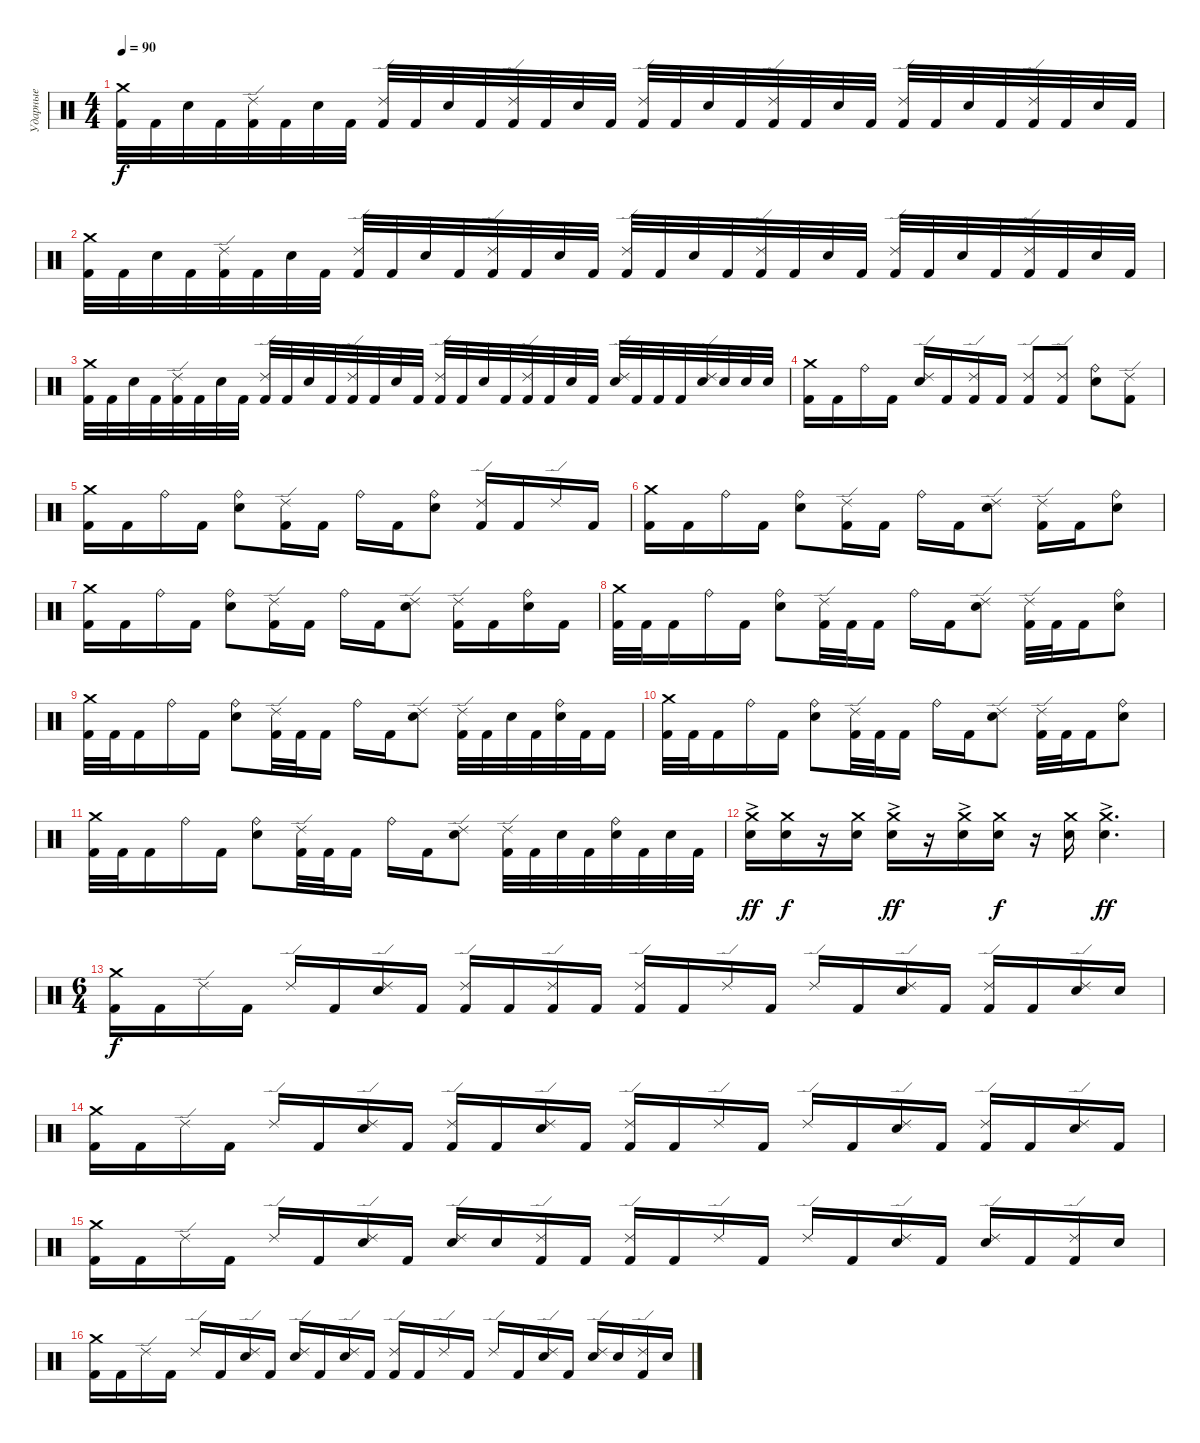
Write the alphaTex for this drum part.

\track ("Ударные" "Ударные") {instrument percussion}
\staff {score}
\articulation defaults
\ts (4 4)
\tempo 90
\clef neutral
\ks c
("Crash medium (hit)" "Kick (hit) 2").32{dy f} "Kick (hit) 2".32 "Electric Snare (hit)".32 "Kick (hit) 2".32 ("Ride (edge) 2" "Kick (hit) 2").32 "Kick (hit) 2".32 "Electric Snare (hit)".32 "Kick (hit) 2".32 ("Ride (edge) 2" "Kick (hit) 2").32 "Kick (hit) 2".32 "Electric Snare (hit)".32 "Kick (hit) 2".32 ("Ride (edge) 2" "Kick (hit) 2").32 "Kick (hit) 2".32 "Electric Snare (hit)".32 "Kick (hit) 2".32 ("Ride (edge) 2" "Kick (hit) 2").32 "Kick (hit) 2".32 "Electric Snare (hit)".32 "Kick (hit) 2".32 ("Ride (edge) 2" "Kick (hit) 2").32 "Kick (hit) 2".32 "Electric Snare (hit)".32 "Kick (hit) 2".32 ("Ride (edge) 2" "Kick (hit) 2").32 "Kick (hit) 2".32 "Electric Snare (hit)".32 "Kick (hit) 2".32 ("Ride (edge) 2" "Kick (hit) 2").32 "Kick (hit) 2".32 "Electric Snare (hit)".32 "Kick (hit) 2".32 |
("Crash medium (hit)" "Kick (hit) 2").32 "Kick (hit) 2".32 "Electric Snare (hit)".32 "Kick (hit) 2".32 ("Ride (edge) 2" "Kick (hit) 2").32 "Kick (hit) 2".32 "Electric Snare (hit)".32 "Kick (hit) 2".32 ("Ride (edge) 2" "Kick (hit) 2").32 "Kick (hit) 2".32 "Electric Snare (hit)".32 "Kick (hit) 2".32 ("Ride (edge) 2" "Kick (hit) 2").32 "Kick (hit) 2".32 "Electric Snare (hit)".32 "Kick (hit) 2".32 ("Ride (edge) 2" "Kick (hit) 2").32 "Kick (hit) 2".32 "Electric Snare (hit)".32 "Kick (hit) 2".32 ("Ride (edge) 2" "Kick (hit) 2").32 "Kick (hit) 2".32 "Electric Snare (hit)".32 "Kick (hit) 2".32 ("Ride (edge) 2" "Kick (hit) 2").32 "Kick (hit) 2".32 "Electric Snare (hit)".32 "Kick (hit) 2".32 ("Ride (edge) 2" "Kick (hit) 2").32 "Kick (hit) 2".32 "Electric Snare (hit)".32 "Kick (hit) 2".32 |
("Crash medium (hit)" "Kick (hit) 2").32 "Kick (hit) 2".32 "Electric Snare (hit)".32 "Kick (hit) 2".32 ("Ride (edge) 2" "Kick (hit) 2").32 "Kick (hit) 2".32 "Electric Snare (hit)".32 "Kick (hit) 2".32 ("Ride (edge) 2" "Kick (hit) 2").32 "Kick (hit) 2".32 "Electric Snare (hit)".32 "Kick (hit) 2".32 ("Ride (edge) 2" "Kick (hit) 2").32 "Kick (hit) 2".32 "Electric Snare (hit)".32 "Kick (hit) 2".32 ("Ride (edge) 2" "Kick (hit) 2").32 "Kick (hit) 2".32 "Electric Snare (hit)".32 "Kick (hit) 2".32 ("Ride (edge) 2" "Kick (hit) 2").32 "Kick (hit) 2".32 "Electric Snare (hit)".32 "Kick (hit) 2".32 ("Electric Snare (hit)" "Ride (edge) 2").32 "Kick (hit) 2".32 "Kick (hit) 2".32 "Kick (hit) 2".32 ("Electric Snare (hit)" "Ride (edge) 2").32 "Electric Snare (hit)".32 "Electric Snare (hit)".32 "Electric Snare (hit)".32 |
("Crash medium (hit)" "Kick (hit) 2").16 "Kick (hit) 2".16 "Ride (bell)".16 "Kick (hit) 2".16 ("Ride (edge) 2" "Electric Snare (hit)").16 "Kick (hit) 2".16 ("Ride (edge) 2" "Kick (hit) 2").16 "Kick (hit) 2".16 ("Ride (edge) 2" "Kick (hit) 2").8 ("Ride (edge) 2" "Kick (hit) 2").8 ("Ride (bell)" "Electric Snare (hit)").8 ("Ride (edge) 2" "Kick (hit) 2").8 |
("Crash medium (hit)" "Kick (hit) 2").16 "Kick (hit) 2".16 "Ride (bell)".16 "Kick (hit) 2".16 ("Ride (bell)" "Electric Snare (hit)").8 ("Ride (edge) 2" "Kick (hit) 2").16 "Kick (hit) 2".16 "Ride (bell)".16 "Kick (hit) 2".16 ("Ride (bell)" "Electric Snare (hit)").8 ("Ride (edge) 2" "Kick (hit) 2").16 "Kick (hit) 2".16 "Ride (edge) 2".16 "Kick (hit) 2".16 |
("Crash medium (hit)" "Kick (hit) 2").16 "Kick (hit) 2".16 "Ride (bell)".16 "Kick (hit) 2".16 ("Ride (bell)" "Electric Snare (hit)").8 ("Ride (edge) 2" "Kick (hit) 2").16 "Kick (hit) 2".16 "Ride (bell)".16 "Kick (hit) 2".16 ("Ride (edge) 2" "Electric Snare (hit)").8 ("Ride (edge) 2" "Kick (hit) 2").16 "Kick (hit) 2".16 ("Ride (bell)" "Electric Snare (hit)").8 |
("Crash medium (hit)" "Kick (hit) 2").16 "Kick (hit) 2".16 "Ride (bell)".16 "Kick (hit) 2".16 ("Ride (bell)" "Electric Snare (hit)").8 ("Ride (edge) 2" "Kick (hit) 2").16 "Kick (hit) 2".16 "Ride (bell)".16 "Kick (hit) 2".16 ("Ride (edge) 2" "Electric Snare (hit)").8 ("Ride (edge) 2" "Kick (hit) 2").16 "Kick (hit) 2".16 ("Ride (bell)" "Electric Snare (hit)").16 "Kick (hit) 2".16 |
("Crash medium (hit)" "Kick (hit) 2").32 "Kick (hit) 2".32 "Kick (hit) 2".16 "Ride (bell)".16 "Kick (hit) 2".16 ("Ride (bell)" "Electric Snare (hit)").8 ("Ride (edge) 2" "Kick (hit) 2").32 "Kick (hit) 2".32 "Kick (hit) 2".16 "Ride (bell)".16 "Kick (hit) 2".16 ("Ride (edge) 2" "Electric Snare (hit)").8 ("Ride (edge) 2" "Kick (hit) 2").32 "Kick (hit) 2".32 "Kick (hit) 2".16 ("Ride (bell)" "Electric Snare (hit)").8 |
("Crash medium (hit)" "Kick (hit) 2").32 "Kick (hit) 2".32 "Kick (hit) 2".16 "Ride (bell)".16 "Kick (hit) 2".16 ("Ride (bell)" "Electric Snare (hit)").8 ("Ride (edge) 2" "Kick (hit) 2").32 "Kick (hit) 2".32 "Kick (hit) 2".16 "Ride (bell)".16 "Kick (hit) 2".16 ("Ride (edge) 2" "Electric Snare (hit)").8 ("Ride (edge) 2" "Kick (hit) 2").32 "Kick (hit) 2".32 "Electric Snare (hit)".32 "Kick (hit) 2".32 ("Ride (bell)" "Electric Snare (hit)").32 "Kick (hit) 2".32 "Kick (hit) 2".16 |
("Crash medium (hit)" "Kick (hit) 2").32 "Kick (hit) 2".32 "Kick (hit) 2".16 "Ride (bell)".16 "Kick (hit) 2".16 ("Ride (bell)" "Electric Snare (hit)").8 ("Ride (edge) 2" "Kick (hit) 2").32 "Kick (hit) 2".32 "Kick (hit) 2".16 "Ride (bell)".16 "Kick (hit) 2".16 ("Ride (edge) 2" "Electric Snare (hit)").8 ("Ride (edge) 2" "Kick (hit) 2").32 "Kick (hit) 2".32 "Kick (hit) 2".16 ("Ride (bell)" "Electric Snare (hit)").8 |
("Crash medium (hit)" "Kick (hit) 2").32 "Kick (hit) 2".32 "Kick (hit) 2".16 "Ride (bell)".16 "Kick (hit) 2".16 ("Ride (bell)" "Electric Snare (hit)").8 ("Ride (edge) 2" "Kick (hit) 2").32 "Kick (hit) 2".32 "Kick (hit) 2".16 "Ride (bell)".16 "Kick (hit) 2".16 ("Ride (edge) 2" "Electric Snare (hit)").8 ("Ride (edge) 2" "Kick (hit) 2").32 "Kick (hit) 2".32 "Electric Snare (hit)".32 "Kick (hit) 2".32 ("Ride (bell)" "Electric Snare (hit)").32 "Kick (hit) 2".32 "Electric Snare (hit)".32 "Kick (hit) 2".32 |
("Crash medium (hit)" "Electric Snare (hit)"{ac}).16{dy ff} ("Crash medium (hit)" "Electric Snare (hit)").16{dy f} r.16 ("Crash medium (hit)" "Electric Snare (hit)").16 ("Crash medium (hit)" "Electric Snare (hit)"{ac}).16{dy ff} r.16 ("Crash medium (hit)" "Electric Snare (hit)"{ac}).16 ("Crash medium (hit)" "Electric Snare (hit)").16{dy f} r.16 ("Crash medium (hit)" "Electric Snare (hit)").16 ("Crash medium (hit)" "Electric Snare (hit)"{ac}).4{d dy ff} |
\ts (6 4)
("Crash medium (hit)" "Kick (hit) 2").16{dy f} "Kick (hit) 2".16 "Ride (edge) 2".16 "Kick (hit) 2".16 "Ride (edge) 2".16 "Kick (hit) 2".16 ("Ride (edge) 2" "Electric Snare (hit)").16 "Kick (hit) 2".16 ("Ride (edge) 2" "Kick (hit) 2").16 "Kick (hit) 2".16 ("Ride (edge) 2" "Kick (hit) 2").16 "Kick (hit) 2".16 ("Ride (edge) 2" "Kick (hit) 2").16 "Kick (hit) 2".16 "Ride (edge) 2".16 "Kick (hit) 2".16 "Ride (edge) 2".16 "Kick (hit) 2".16 ("Ride (edge) 2" "Electric Snare (hit)").16 "Kick (hit) 2".16 ("Ride (edge) 2" "Kick (hit) 2").16 "Kick (hit) 2".16 ("Ride (edge) 2" "Electric Snare (hit)").16 "Electric Snare (hit)".16 |
("Crash medium (hit)" "Kick (hit) 2").16 "Kick (hit) 2".16 "Ride (edge) 2".16 "Kick (hit) 2".16 "Ride (edge) 2".16 "Kick (hit) 2".16 ("Ride (edge) 2" "Electric Snare (hit)").16 "Kick (hit) 2".16 ("Ride (edge) 2" "Kick (hit) 2").16 "Kick (hit) 2".16 ("Ride (edge) 2" "Electric Snare (hit)").16 "Kick (hit) 2".16 ("Ride (edge) 2" "Kick (hit) 2").16 "Kick (hit) 2".16 "Ride (edge) 2".16 "Kick (hit) 2".16 "Ride (edge) 2".16 "Kick (hit) 2".16 ("Ride (edge) 2" "Electric Snare (hit)").16 "Kick (hit) 2".16 ("Ride (edge) 2" "Kick (hit) 2").16 "Kick (hit) 2".16 ("Ride (edge) 2" "Electric Snare (hit)").16 "Kick (hit) 2".16 |
("Crash medium (hit)" "Kick (hit) 2").16 "Kick (hit) 2".16 "Ride (edge) 2".16 "Kick (hit) 2".16 "Ride (edge) 2".16 "Kick (hit) 2".16 ("Ride (edge) 2" "Electric Snare (hit)").16 "Kick (hit) 2".16 ("Ride (edge) 2" "Electric Snare (hit)").16 "Electric Snare (hit)".16 ("Ride (edge) 2" "Kick (hit) 2").16 "Kick (hit) 2".16 ("Ride (edge) 2" "Kick (hit) 2").16 "Kick (hit) 2".16 "Ride (edge) 2".16 "Kick (hit) 2".16 "Ride (edge) 2".16 "Kick (hit) 2".16 ("Ride (edge) 2" "Electric Snare (hit)").16 "Kick (hit) 2".16 ("Ride (edge) 2" "Electric Snare (hit)").16 "Kick (hit) 2".16 ("Ride (edge) 2" "Kick (hit) 2").16 "Electric Snare (hit)".16 |
("Crash medium (hit)" "Kick (hit) 2").16 "Kick (hit) 2".16 "Ride (edge) 2".16 "Kick (hit) 2".16 "Ride (edge) 2".16 "Kick (hit) 2".16 ("Ride (edge) 2" "Electric Snare (hit)").16 "Kick (hit) 2".16 ("Ride (edge) 2" "Electric Snare (hit)").16 "Kick (hit) 2".16 ("Ride (edge) 2" "Electric Snare (hit)").16 "Kick (hit) 2".16 ("Ride (edge) 2" "Kick (hit) 2").16 "Kick (hit) 2".16 "Ride (edge) 2".16 "Kick (hit) 2".16 "Ride (edge) 2".16 "Kick (hit) 2".16 ("Ride (edge) 2" "Electric Snare (hit)").16 "Kick (hit) 2".16 ("Ride (edge) 2" "Electric Snare (hit)").16 "Electric Snare (hit)".16 ("Ride (edge) 2" "Kick (hit) 2").16 "Electric Snare (hit)".16
